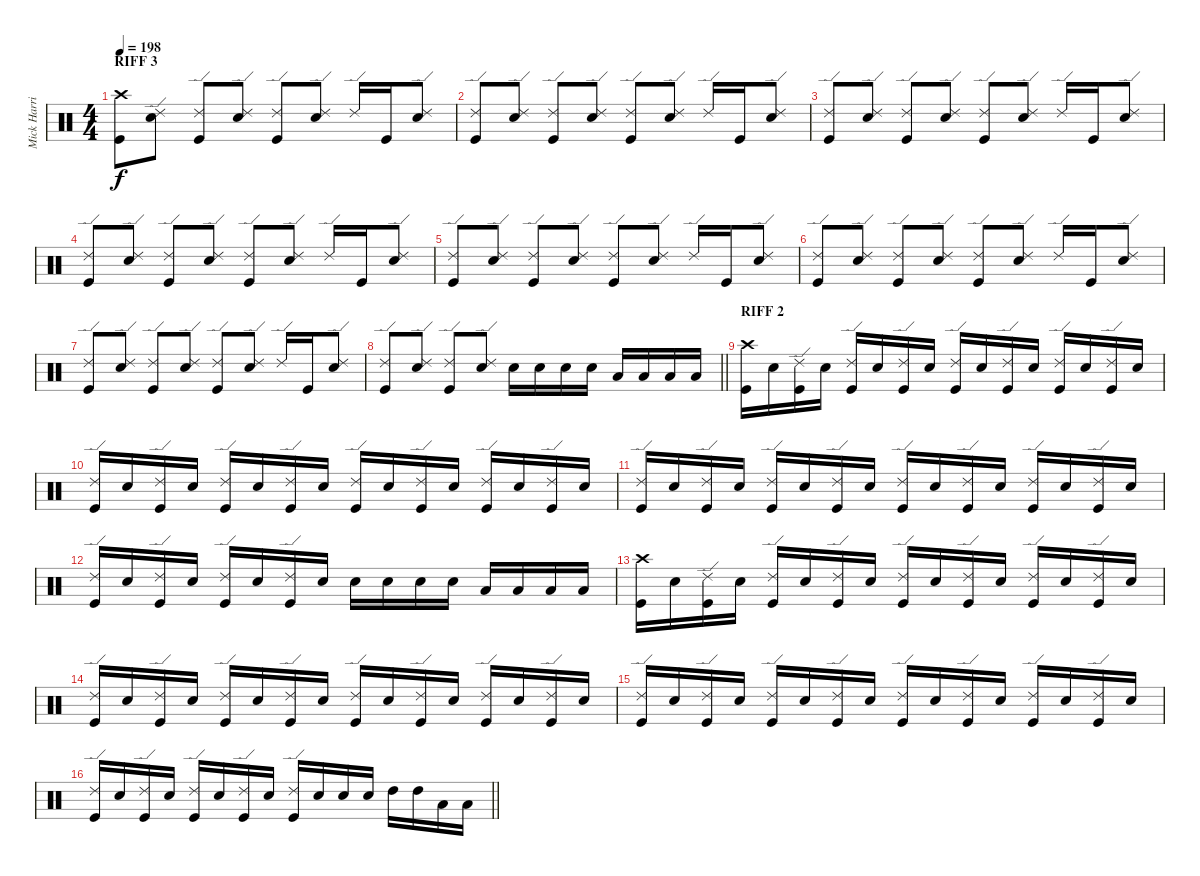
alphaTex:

\track ("Mick Harris" "Mick Harri") {instrument percussion}
\staff {score}
\articulation defaults
\ts (4 4)
\section ("" "RIFF 3")
\tempo 198
\clef neutral
\ks c
("Crash high (hit)" "Kick (hit)").8{dy f} ("Ride (edge) 2" "Snare (hit) 2").8 ("Ride (edge) 2" "Kick (hit)").8 ("Ride (edge) 2" "Snare (hit) 2").8 ("Ride (edge) 2" "Kick (hit)").8 ("Ride (edge) 2" "Snare (hit) 2").8 "Ride (edge) 2".16 "Kick (hit)".16 ("Ride (edge) 2" "Snare (hit) 2").8 |
("Ride (edge) 2" "Kick (hit)").8 ("Ride (edge) 2" "Snare (hit) 2").8 ("Ride (edge) 2" "Kick (hit)").8 ("Ride (edge) 2" "Snare (hit) 2").8 ("Ride (edge) 2" "Kick (hit)").8 ("Ride (edge) 2" "Snare (hit) 2").8 "Ride (edge) 2".16 "Kick (hit)".16 ("Ride (edge) 2" "Snare (hit) 2").8 |
("Ride (edge) 2" "Kick (hit)").8 ("Ride (edge) 2" "Snare (hit) 2").8 ("Ride (edge) 2" "Kick (hit)").8 ("Ride (edge) 2" "Snare (hit) 2").8 ("Ride (edge) 2" "Kick (hit)").8 ("Ride (edge) 2" "Snare (hit) 2").8 "Ride (edge) 2".16 "Kick (hit)".16 ("Ride (edge) 2" "Snare (hit) 2").8 |
("Ride (edge) 2" "Kick (hit)").8 ("Ride (edge) 2" "Snare (hit) 2").8 ("Ride (edge) 2" "Kick (hit)").8 ("Ride (edge) 2" "Snare (hit) 2").8 ("Ride (edge) 2" "Kick (hit)").8 ("Ride (edge) 2" "Snare (hit) 2").8 "Ride (edge) 2".16 "Kick (hit)".16 ("Ride (edge) 2" "Snare (hit) 2").8 |
("Ride (edge) 2" "Kick (hit)").8 ("Ride (edge) 2" "Snare (hit) 2").8 ("Ride (edge) 2" "Kick (hit)").8 ("Ride (edge) 2" "Snare (hit) 2").8 ("Ride (edge) 2" "Kick (hit)").8 ("Ride (edge) 2" "Snare (hit) 2").8 "Ride (edge) 2".16 "Kick (hit)".16 ("Ride (edge) 2" "Snare (hit) 2").8 |
("Ride (edge) 2" "Kick (hit)").8 ("Ride (edge) 2" "Snare (hit) 2").8 ("Ride (edge) 2" "Kick (hit)").8 ("Ride (edge) 2" "Snare (hit) 2").8 ("Ride (edge) 2" "Kick (hit)").8 ("Ride (edge) 2" "Snare (hit) 2").8 "Ride (edge) 2".16 "Kick (hit)".16 ("Ride (edge) 2" "Snare (hit) 2").8 |
("Ride (edge) 2" "Kick (hit)").8 ("Ride (edge) 2" "Snare (hit) 2").8 ("Ride (edge) 2" "Kick (hit)").8 ("Ride (edge) 2" "Snare (hit) 2").8 ("Ride (edge) 2" "Kick (hit)").8 ("Ride (edge) 2" "Snare (hit) 2").8 "Ride (edge) 2".16 "Kick (hit)".16 ("Ride (edge) 2" "Snare (hit) 2").8 |
\barLineRight lightlight
("Ride (edge) 2" "Kick (hit)").8 ("Ride (edge) 2" "Snare (hit) 2").8 ("Ride (edge) 2" "Kick (hit)").8 ("Ride (edge) 2" "Snare (hit) 2").8 "Snare (hit) 2".16 "Snare (hit) 2".16 "Snare (hit) 2".16 "Snare (hit) 2".16 "Low Tom (hit)".16 "Low Tom (hit)".16 "Low Tom (hit)".16 "Low Tom (hit)".16 |
\section ("" "RIFF 2")
("Crash high (hit)" "Kick (hit)").16 "Snare (hit) 2".16 ("Ride (edge) 2" "Kick (hit)").16 "Snare (hit) 2".16 ("Ride (edge) 2" "Kick (hit)").16 "Snare (hit) 2".16 ("Ride (edge) 2" "Kick (hit)").16 "Snare (hit) 2".16 ("Ride (edge) 2" "Kick (hit)").16 "Snare (hit) 2".16 ("Ride (edge) 2" "Kick (hit)").16 "Snare (hit) 2".16 ("Ride (edge) 2" "Kick (hit)").16 "Snare (hit) 2".16 ("Ride (edge) 2" "Kick (hit)").16 "Snare (hit) 2".16 |
("Ride (edge) 2" "Kick (hit)").16 "Snare (hit) 2".16 ("Ride (edge) 2" "Kick (hit)").16 "Snare (hit) 2".16 ("Ride (edge) 2" "Kick (hit)").16 "Snare (hit) 2".16 ("Ride (edge) 2" "Kick (hit)").16 "Snare (hit) 2".16 ("Ride (edge) 2" "Kick (hit)").16 "Snare (hit) 2".16 ("Ride (edge) 2" "Kick (hit)").16 "Snare (hit) 2".16 ("Ride (edge) 2" "Kick (hit)").16 "Snare (hit) 2".16 ("Ride (edge) 2" "Kick (hit)").16 "Snare (hit) 2".16 |
("Ride (edge) 2" "Kick (hit)").16 "Snare (hit) 2".16 ("Ride (edge) 2" "Kick (hit)").16 "Snare (hit) 2".16 ("Ride (edge) 2" "Kick (hit)").16 "Snare (hit) 2".16 ("Ride (edge) 2" "Kick (hit)").16 "Snare (hit) 2".16 ("Ride (edge) 2" "Kick (hit)").16 "Snare (hit) 2".16 ("Ride (edge) 2" "Kick (hit)").16 "Snare (hit) 2".16 ("Ride (edge) 2" "Kick (hit)").16 "Snare (hit) 2".16 ("Ride (edge) 2" "Kick (hit)").16 "Snare (hit) 2".16 |
("Ride (edge) 2" "Kick (hit)").16 "Snare (hit) 2".16 ("Ride (edge) 2" "Kick (hit)").16 "Snare (hit) 2".16 ("Ride (edge) 2" "Kick (hit)").16 "Snare (hit) 2".16 ("Ride (edge) 2" "Kick (hit)").16 "Snare (hit) 2".16 "Snare (hit) 2".16 "Snare (hit) 2".16 "Snare (hit) 2".16 "Snare (hit) 2".16 "Low Tom (hit)".16 "Low Tom (hit)".16 "Low Tom (hit)".16 "Low Tom (hit)".16 |
("Crash high (hit)" "Kick (hit)").16 "Snare (hit) 2".16 ("Ride (edge) 2" "Kick (hit)").16 "Snare (hit) 2".16 ("Ride (edge) 2" "Kick (hit)").16 "Snare (hit) 2".16 ("Ride (edge) 2" "Kick (hit)").16 "Snare (hit) 2".16 ("Ride (edge) 2" "Kick (hit)").16 "Snare (hit) 2".16 ("Ride (edge) 2" "Kick (hit)").16 "Snare (hit) 2".16 ("Ride (edge) 2" "Kick (hit)").16 "Snare (hit) 2".16 ("Ride (edge) 2" "Kick (hit)").16 "Snare (hit) 2".16 |
("Ride (edge) 2" "Kick (hit)").16 "Snare (hit) 2".16 ("Ride (edge) 2" "Kick (hit)").16 "Snare (hit) 2".16 ("Ride (edge) 2" "Kick (hit)").16 "Snare (hit) 2".16 ("Ride (edge) 2" "Kick (hit)").16 "Snare (hit) 2".16 ("Ride (edge) 2" "Kick (hit)").16 "Snare (hit) 2".16 ("Ride (edge) 2" "Kick (hit)").16 "Snare (hit) 2".16 ("Ride (edge) 2" "Kick (hit)").16 "Snare (hit) 2".16 ("Ride (edge) 2" "Kick (hit)").16 "Snare (hit) 2".16 |
("Ride (edge) 2" "Kick (hit)").16 "Snare (hit) 2".16 ("Ride (edge) 2" "Kick (hit)").16 "Snare (hit) 2".16 ("Ride (edge) 2" "Kick (hit)").16 "Snare (hit) 2".16 ("Ride (edge) 2" "Kick (hit)").16 "Snare (hit) 2".16 ("Ride (edge) 2" "Kick (hit)").16 "Snare (hit) 2".16 ("Ride (edge) 2" "Kick (hit)").16 "Snare (hit) 2".16 ("Ride (edge) 2" "Kick (hit)").16 "Snare (hit) 2".16 ("Ride (edge) 2" "Kick (hit)").16 "Snare (hit) 2".16 |
\barLineRight lightlight
("Ride (edge) 2" "Kick (hit)").16 "Snare (hit) 2".16 ("Ride (edge) 2" "Kick (hit)").16 "Snare (hit) 2".16 ("Ride (edge) 2" "Kick (hit)").16 "Snare (hit) 2".16 ("Ride (edge) 2" "Kick (hit)").16 "Snare (hit) 2".16 ("Ride (edge) 2" "Kick (hit)").16 "Snare (hit) 2".16 "Snare (hit) 2".16 "Snare (hit) 2".16 "High Tom (hit)".16 "High Tom (hit)".16 "Low Tom (hit)".16 "Low Tom (hit)".16
